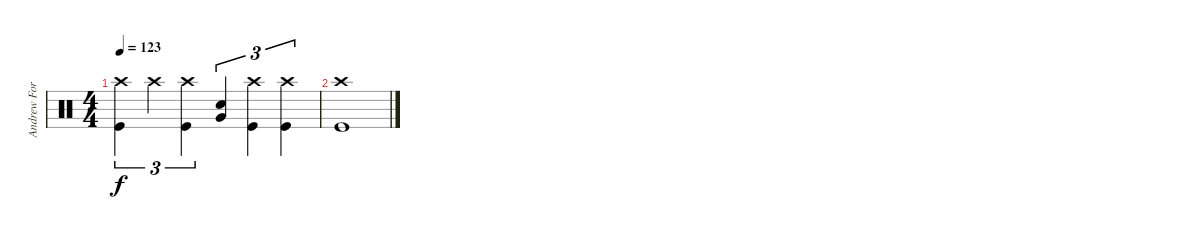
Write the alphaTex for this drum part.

\track ("Andrew Forsman" "Andrew For") {instrument percussion}
\staff {score}
\articulation defaults
\ts (4 4)
\tempo 123
\clef neutral
\ks c
("Crash high (hit)" "Kick (hit)").4{tu (3 2) dy f} "Crash high (hit)".4{tu (3 2)} ("Crash high (hit)" "Kick (hit)").4{tu (3 2)} ("Snare (hit) 2" "Very Low Tom (hit)").4{tu (3 2)} ("Crash high (hit)" "Kick (hit)").4{tu (3 2)} ("Crash high (hit)" "Kick (hit)").4{tu (3 2)} |
("Crash high (hit)" "Kick (hit)").1
